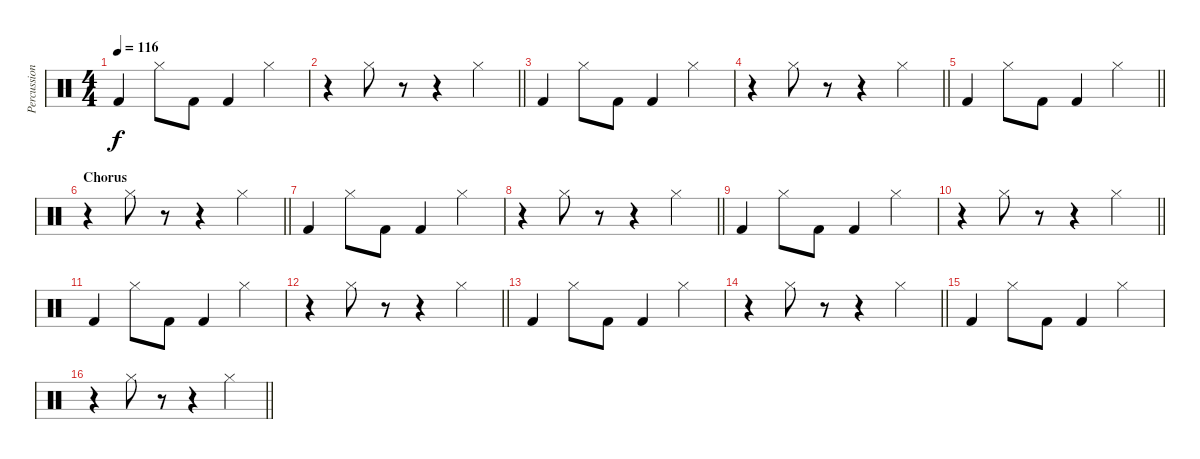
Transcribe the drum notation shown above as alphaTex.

\track ("Percussion" "Percussion") {instrument percussion}
\staff {score}
\articulation defaults
\ts (4 4)
\tempo 116
\clef neutral
\ks c "Kick (hit) 2".4{dy f} "Hi-Hat (closed)".8 "Kick (hit) 2".8 "Kick (hit) 2".4 "Hi-Hat (closed)".4
|
\barLineRight lightlight
r.4 "Hi-Hat (closed)".8 r.8 r.4 "Hi-Hat (closed)".4 |
"Kick (hit) 2".4 "Hi-Hat (closed)".8 "Kick (hit) 2".8 "Kick (hit) 2".4 "Hi-Hat (closed)".4 |
\barLineRight lightlight
r.4 "Hi-Hat (closed)".8 r.8 r.4 "Hi-Hat (closed)".4 |
\barLineRight lightlight "Kick (hit) 2".4 "Hi-Hat (closed)".8 "Kick (hit) 2".8 "Kick (hit) 2".4 "Hi-Hat (closed)".4
|
\section ("" "Chorus")
\barLineRight lightlight
r.4 "Hi-Hat (closed)".8 r.8 r.4 "Hi-Hat (closed)".4 |
"Kick (hit) 2".4 "Hi-Hat (closed)".8 "Kick (hit) 2".8 "Kick (hit) 2".4 "Hi-Hat (closed)".4 |
\barLineRight lightlight
r.4 "Hi-Hat (closed)".8 r.8 r.4 "Hi-Hat (closed)".4 |
"Kick (hit) 2".4 "Hi-Hat (closed)".8 "Kick (hit) 2".8 "Kick (hit) 2".4 "Hi-Hat (closed)".4 |
\barLineRight lightlight
r.4 "Hi-Hat (closed)".8 r.8 r.4 "Hi-Hat (closed)".4 |
"Kick (hit) 2".4 "Hi-Hat (closed)".8 "Kick (hit) 2".8 "Kick (hit) 2".4 "Hi-Hat (closed)".4 |
\barLineRight lightlight
r.4 "Hi-Hat (closed)".8 r.8 r.4 "Hi-Hat (closed)".4 |
"Kick (hit) 2".4 "Hi-Hat (closed)".8 "Kick (hit) 2".8 "Kick (hit) 2".4 "Hi-Hat (closed)".4 |
\barLineRight lightlight
r.4 "Hi-Hat (closed)".8 r.8 r.4 "Hi-Hat (closed)".4 |
"Kick (hit) 2".4 "Hi-Hat (closed)".8 "Kick (hit) 2".8 "Kick (hit) 2".4 "Hi-Hat (closed)".4 |
\barLineRight lightlight
r.4 "Hi-Hat (closed)".8 r.8 r.4 "Hi-Hat (closed)".4
